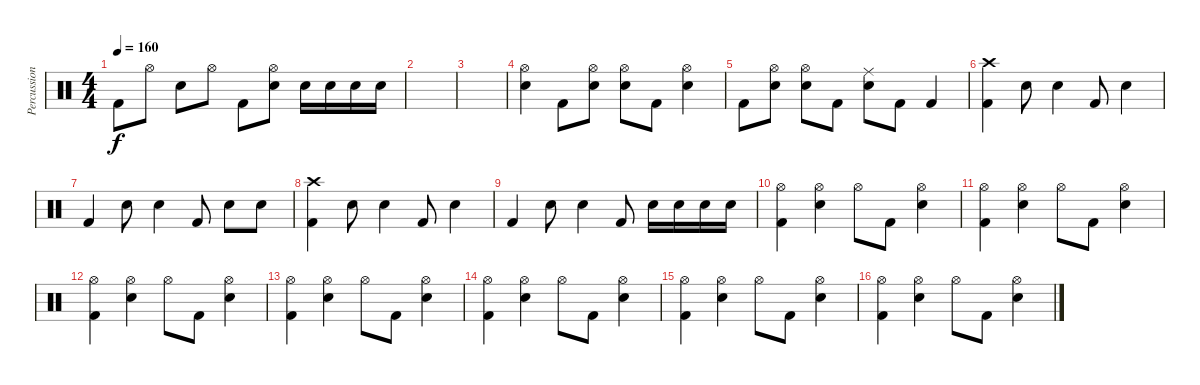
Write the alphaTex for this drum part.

\track ("Percussion" "Percussion") {instrument percussion}
\staff {score}
\articulation defaults
\ts (4 4)
\tempo 160
\clef neutral
\ks c "Kick (hit) 2".8{dy f} "Hi-Hat (open)".8 "Electric Snare (hit)".8 "Hi-Hat (open)".8 "Kick (hit) 2".8
("Hi-Hat (open)" "Electric Snare (hit)").8 "Electric Snare (hit)".16 "Electric Snare (hit)".16 "Electric Snare (hit)".16 "Electric Snare (hit)".16 |
|
|
("Electric Snare (hit)" "Hi-Hat (open)").4 "Kick (hit) 2".8 ("Electric Snare (hit)" "Hi-Hat (open)").8 ("Electric Snare (hit)" "Hi-Hat (open)").8 "Kick (hit) 2".8 ("Electric Snare (hit)" "Hi-Hat (open)").4 |
"Kick (hit) 2".8 ("Electric Snare (hit)" "Hi-Hat (open)").8 ("Electric Snare (hit)" "Hi-Hat (open)").8 "Kick (hit) 2".8 ("Electric Snare (hit)" "Ride (middle)").8 "Kick (hit) 2".8 "Kick (hit) 2".4 |
("Kick (hit) 2" "Crash high (hit)").4 "Electric Snare (hit)".8 "Electric Snare (hit)".4 "Kick (hit) 2".8 "Electric Snare (hit)".4 |
"Kick (hit) 2".4 "Electric Snare (hit)".8 "Electric Snare (hit)".4 "Kick (hit) 2".8 "Electric Snare (hit)".8 "Electric Snare (hit)".8 |
("Kick (hit) 2" "Crash high (hit)").4 "Electric Snare (hit)".8 "Electric Snare (hit)".4 "Kick (hit) 2".8 "Electric Snare (hit)".4 |
"Kick (hit) 2".4 "Electric Snare (hit)".8 "Electric Snare (hit)".4 "Kick (hit) 2".8 "Electric Snare (hit)".16 "Electric Snare (hit)".16 "Electric Snare (hit)".16 "Electric Snare (hit)".16 |
("Kick (hit) 2" "Hi-Hat (open)").4 ("Electric Snare (hit)" "Hi-Hat (open)").4 "Hi-Hat (open)".8 "Kick (hit) 2".8 ("Electric Snare (hit)" "Hi-Hat (open)").4 |
("Kick (hit) 2" "Hi-Hat (open)").4 ("Electric Snare (hit)" "Hi-Hat (open)").4 "Hi-Hat (open)".8 "Kick (hit) 2".8 ("Electric Snare (hit)" "Hi-Hat (open)").4 |
("Kick (hit) 2" "Hi-Hat (open)").4 ("Electric Snare (hit)" "Hi-Hat (open)").4 "Hi-Hat (open)".8 "Kick (hit) 2".8 ("Electric Snare (hit)" "Hi-Hat (open)").4 |
("Kick (hit) 2" "Hi-Hat (open)").4 ("Electric Snare (hit)" "Hi-Hat (open)").4 "Hi-Hat (open)".8 "Kick (hit) 2".8 ("Electric Snare (hit)" "Hi-Hat (open)").4 |
("Kick (hit) 2" "Hi-Hat (open)").4 ("Electric Snare (hit)" "Hi-Hat (open)").4 "Hi-Hat (open)".8 "Kick (hit) 2".8 ("Electric Snare (hit)" "Hi-Hat (open)").4 |
("Kick (hit) 2" "Hi-Hat (open)").4 ("Electric Snare (hit)" "Hi-Hat (open)").4 "Hi-Hat (open)".8 "Kick (hit) 2".8 ("Electric Snare (hit)" "Hi-Hat (open)").4 |
("Kick (hit) 2" "Hi-Hat (open)").4 ("Electric Snare (hit)" "Hi-Hat (open)").4 "Hi-Hat (open)".8 "Kick (hit) 2".8 ("Electric Snare (hit)" "Hi-Hat (open)").4
